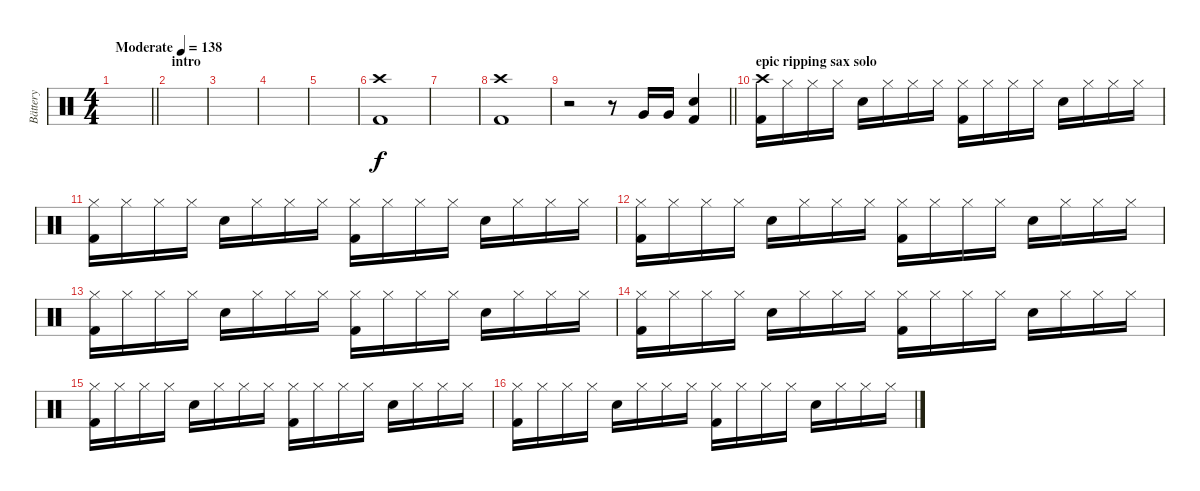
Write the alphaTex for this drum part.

\track ("Bättery" "Bättery") {instrument percussion}
\staff {score}
\articulation defaults
\ts (4 4)
\tempo (138 "Moderate")
\clef neutral
\barLineRight lightlight
\ks c
|
\section ("" "intro")
|
|
|
|
("Crash high (hit)" "Kick (hit) 2").1 |
|
("Crash high (hit)" "Kick (hit) 2").1 |
\barLineRight lightlight
r.2 r.8 "Very Low Tom (hit)".16 "Very Low Tom (hit)".16 ("Electric Snare (hit)" "Kick (hit) 2").4 |
\section ("" "epic ripping sax solo")
("Crash high (hit)" "Kick (hit) 2").16 "Hi-Hat (closed)".16 "Hi-Hat (closed)".16 "Hi-Hat (closed)".16 "Electric Snare (hit)".16 "Hi-Hat (closed)".16 "Hi-Hat (closed)".16 "Hi-Hat (closed)".16 ("Hi-Hat (closed)" "Kick (hit) 2").16 "Hi-Hat (closed)".16 "Hi-Hat (closed)".16 "Hi-Hat (closed)".16 "Electric Snare (hit)".16 "Hi-Hat (closed)".16 "Hi-Hat (closed)".16 "Hi-Hat (closed)".16 |
("Hi-Hat (closed)" "Kick (hit) 2").16 "Hi-Hat (closed)".16 "Hi-Hat (closed)".16 "Hi-Hat (closed)".16 "Electric Snare (hit)".16 "Hi-Hat (closed)".16 "Hi-Hat (closed)".16 "Hi-Hat (closed)".16 ("Hi-Hat (closed)" "Kick (hit) 2").16 "Hi-Hat (closed)".16 "Hi-Hat (closed)".16 "Hi-Hat (closed)".16 "Electric Snare (hit)".16 "Hi-Hat (closed)".16 "Hi-Hat (closed)".16 "Hi-Hat (closed)".16 |
("Hi-Hat (closed)" "Kick (hit) 2").16 "Hi-Hat (closed)".16 "Hi-Hat (closed)".16 "Hi-Hat (closed)".16 "Electric Snare (hit)".16 "Hi-Hat (closed)".16 "Hi-Hat (closed)".16 "Hi-Hat (closed)".16 ("Hi-Hat (closed)" "Kick (hit) 2").16 "Hi-Hat (closed)".16 "Hi-Hat (closed)".16 "Hi-Hat (closed)".16 "Electric Snare (hit)".16 "Hi-Hat (closed)".16 "Hi-Hat (closed)".16 "Hi-Hat (closed)".16 |
("Hi-Hat (closed)" "Kick (hit) 2").16 "Hi-Hat (closed)".16 "Hi-Hat (closed)".16 "Hi-Hat (closed)".16 "Electric Snare (hit)".16 "Hi-Hat (closed)".16 "Hi-Hat (closed)".16 "Hi-Hat (closed)".16 ("Hi-Hat (closed)" "Kick (hit) 2").16 "Hi-Hat (closed)".16 "Hi-Hat (closed)".16 "Hi-Hat (closed)".16 "Electric Snare (hit)".16 "Hi-Hat (closed)".16 "Hi-Hat (closed)".16 "Hi-Hat (closed)".16 |
("Hi-Hat (closed)" "Kick (hit) 2").16 "Hi-Hat (closed)".16 "Hi-Hat (closed)".16 "Hi-Hat (closed)".16 "Electric Snare (hit)".16 "Hi-Hat (closed)".16 "Hi-Hat (closed)".16 "Hi-Hat (closed)".16 ("Hi-Hat (closed)" "Kick (hit) 2").16 "Hi-Hat (closed)".16 "Hi-Hat (closed)".16 "Hi-Hat (closed)".16 "Electric Snare (hit)".16 "Hi-Hat (closed)".16 "Hi-Hat (closed)".16 "Hi-Hat (closed)".16 |
("Hi-Hat (closed)" "Kick (hit) 2").16 "Hi-Hat (closed)".16 "Hi-Hat (closed)".16 "Hi-Hat (closed)".16 "Electric Snare (hit)".16 "Hi-Hat (closed)".16 "Hi-Hat (closed)".16 "Hi-Hat (closed)".16 ("Hi-Hat (closed)" "Kick (hit) 2").16 "Hi-Hat (closed)".16 "Hi-Hat (closed)".16 "Hi-Hat (closed)".16 "Electric Snare (hit)".16 "Hi-Hat (closed)".16 "Hi-Hat (closed)".16 "Hi-Hat (closed)".16 |
("Hi-Hat (closed)" "Kick (hit) 2").16 "Hi-Hat (closed)".16 "Hi-Hat (closed)".16 "Hi-Hat (closed)".16 "Electric Snare (hit)".16 "Hi-Hat (closed)".16 "Hi-Hat (closed)".16 "Hi-Hat (closed)".16 ("Hi-Hat (closed)" "Kick (hit) 2").16 "Hi-Hat (closed)".16 "Hi-Hat (closed)".16 "Hi-Hat (closed)".16 "Electric Snare (hit)".16 "Hi-Hat (closed)".16 "Hi-Hat (closed)".16 "Hi-Hat (closed)".16
